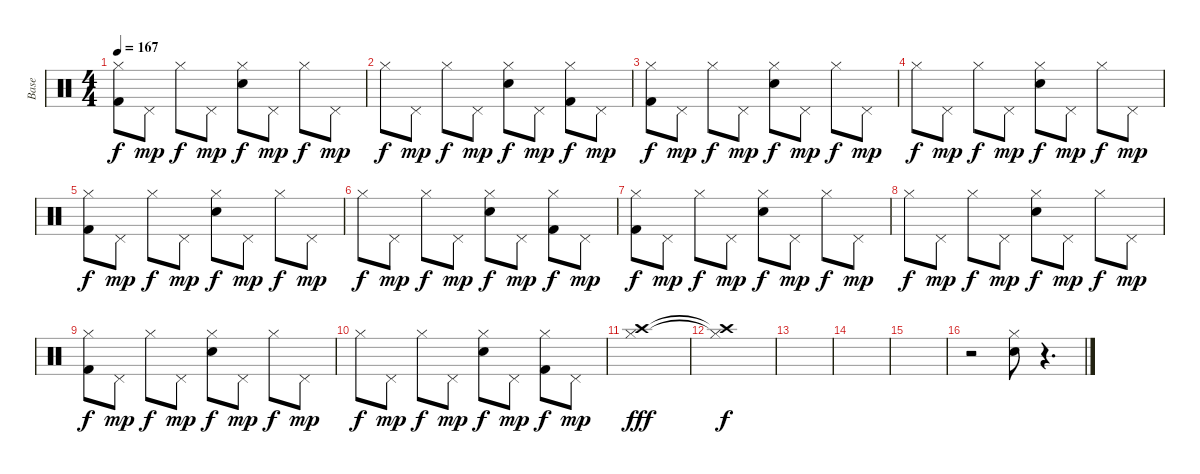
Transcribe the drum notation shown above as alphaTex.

\track ("Base" "Base") {instrument percussion}
\staff {score}
\articulation defaults
\ts (4 4)
\tempo 167
\clef neutral
\ks c
("Hi-Hat (closed)" "Kick (hit) 2").8{dy f} "Pedal Hi-Hat (hit)".8{dy mp} "Hi-Hat (closed)".8{dy f} "Pedal Hi-Hat (hit)".8{dy mp} ("Electric Snare (hit)" "Hi-Hat (closed)").8{dy f} "Pedal Hi-Hat (hit)".8{dy mp} "Hi-Hat (closed)".8{dy f} "Pedal Hi-Hat (hit)".8{dy mp} |
"Hi-Hat (closed)".8{dy f} "Pedal Hi-Hat (hit)".8{dy mp} "Hi-Hat (closed)".8{dy f} "Pedal Hi-Hat (hit)".8{dy mp} ("Electric Snare (hit)" "Hi-Hat (closed)").8{dy f} "Pedal Hi-Hat (hit)".8{dy mp} ("Hi-Hat (closed)" "Kick (hit) 2").8{dy f} "Pedal Hi-Hat (hit)".8{dy mp} |
("Hi-Hat (closed)" "Kick (hit) 2").8{dy f} "Pedal Hi-Hat (hit)".8{dy mp} "Hi-Hat (closed)".8{dy f} "Pedal Hi-Hat (hit)".8{dy mp} ("Electric Snare (hit)" "Hi-Hat (closed)").8{dy f} "Pedal Hi-Hat (hit)".8{dy mp} "Hi-Hat (closed)".8{dy f} "Pedal Hi-Hat (hit)".8{dy mp} |
"Hi-Hat (closed)".8{dy f} "Pedal Hi-Hat (hit)".8{dy mp} "Hi-Hat (closed)".8{dy f} "Pedal Hi-Hat (hit)".8{dy mp} ("Electric Snare (hit)" "Hi-Hat (closed)").8{dy f} "Pedal Hi-Hat (hit)".8{dy mp} "Hi-Hat (closed)".8{dy f} "Pedal Hi-Hat (hit)".8{dy mp} |
("Hi-Hat (closed)" "Kick (hit) 2").8{dy f} "Pedal Hi-Hat (hit)".8{dy mp} "Hi-Hat (closed)".8{dy f} "Pedal Hi-Hat (hit)".8{dy mp} ("Electric Snare (hit)" "Hi-Hat (closed)").8{dy f} "Pedal Hi-Hat (hit)".8{dy mp} "Hi-Hat (closed)".8{dy f} "Pedal Hi-Hat (hit)".8{dy mp} |
"Hi-Hat (closed)".8{dy f} "Pedal Hi-Hat (hit)".8{dy mp} "Hi-Hat (closed)".8{dy f} "Pedal Hi-Hat (hit)".8{dy mp} ("Electric Snare (hit)" "Hi-Hat (closed)").8{dy f} "Pedal Hi-Hat (hit)".8{dy mp} ("Hi-Hat (closed)" "Kick (hit) 2").8{dy f} "Pedal Hi-Hat (hit)".8{dy mp} |
("Hi-Hat (closed)" "Kick (hit) 2").8{dy f} "Pedal Hi-Hat (hit)".8{dy mp} "Hi-Hat (closed)".8{dy f} "Pedal Hi-Hat (hit)".8{dy mp} ("Electric Snare (hit)" "Hi-Hat (closed)").8{dy f} "Pedal Hi-Hat (hit)".8{dy mp} "Hi-Hat (closed)".8{dy f} "Pedal Hi-Hat (hit)".8{dy mp} |
"Hi-Hat (closed)".8{dy f} "Pedal Hi-Hat (hit)".8{dy mp} "Hi-Hat (closed)".8{dy f} "Pedal Hi-Hat (hit)".8{dy mp} ("Electric Snare (hit)" "Hi-Hat (closed)").8{dy f} "Pedal Hi-Hat (hit)".8{dy mp} "Hi-Hat (closed)".8{dy f} "Pedal Hi-Hat (hit)".8{dy mp} |
("Hi-Hat (closed)" "Kick (hit) 2").8{dy f} "Pedal Hi-Hat (hit)".8{dy mp} "Hi-Hat (closed)".8{dy f} "Pedal Hi-Hat (hit)".8{dy mp} ("Electric Snare (hit)" "Hi-Hat (closed)").8{dy f} "Pedal Hi-Hat (hit)".8{dy mp} "Hi-Hat (closed)".8{dy f} "Pedal Hi-Hat (hit)".8{dy mp} |
"Hi-Hat (closed)".8{dy f} "Pedal Hi-Hat (hit)".8{dy mp} "Hi-Hat (closed)".8{dy f} "Pedal Hi-Hat (hit)".8{dy mp} ("Electric Snare (hit)" "Hi-Hat (closed)").8{dy f} "Pedal Hi-Hat (hit)".8{dy mp} ("Hi-Hat (closed)" "Kick (hit) 2").8{dy f} "Pedal Hi-Hat (hit)".8{dy mp} |
("Hi-Hat (closed)" "Crash high (hit)").1{dy fff} |
("Hi-Hat (closed)"{t} "Crash high (hit)"{t}).1{dy f} |
|
|
|
r.2 ("Electric Snare (hit)" "Hi-Hat (closed)").8 r.4{d}
